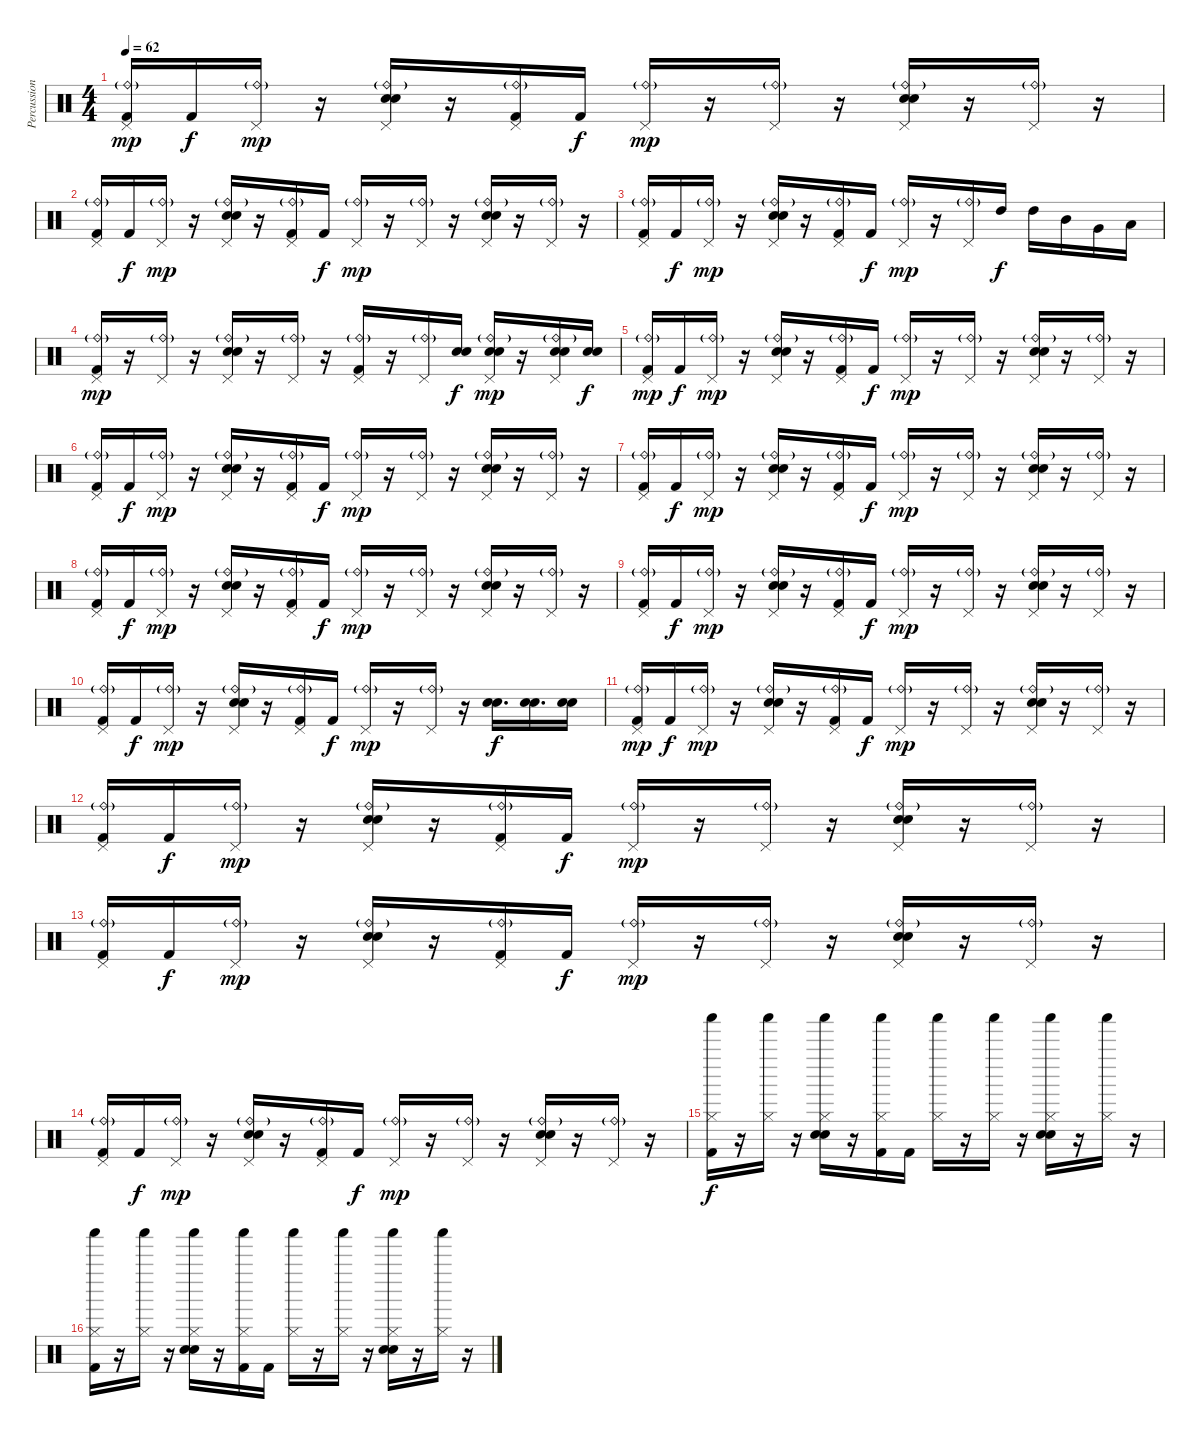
\track ("Percussion" "Percussion") {instrument percussion}
\staff {score}
\articulation defaults
\ts (4 4)
\tempo 62
\clef neutral
\ks c
("Pedal Hi-Hat (hit)" "Ride (bell)"{g} "Kick (hit) 2").16{dy mp} "Kick (hit) 2".16{dy f} ("Pedal Hi-Hat (hit)" "Ride (bell)"{g}).16{dy mp} r.16 ("Pedal Hi-Hat (hit)" "Ride (bell)"{g} "Electric Snare (hit)" "Snare (hit) 2").16 r.16 ("Pedal Hi-Hat (hit)" "Ride (bell)"{g} "Kick (hit) 2").16 "Kick (hit) 2".16{dy f} ("Pedal Hi-Hat (hit)" "Ride (bell)"{g}).16{dy mp} r.16 ("Pedal Hi-Hat (hit)" "Ride (bell)"{g}).16 r.16 ("Pedal Hi-Hat (hit)" "Ride (bell)"{g} "Electric Snare (hit)" "Snare (hit) 2").16 r.16 ("Pedal Hi-Hat (hit)" "Ride (bell)"{g}).16 r.16 |
("Pedal Hi-Hat (hit)" "Ride (bell)"{g} "Kick (hit) 2").16 "Kick (hit) 2".16{dy f} ("Pedal Hi-Hat (hit)" "Ride (bell)"{g}).16{dy mp} r.16 ("Pedal Hi-Hat (hit)" "Ride (bell)"{g} "Electric Snare (hit)" "Snare (hit) 2").16 r.16 ("Pedal Hi-Hat (hit)" "Ride (bell)"{g} "Kick (hit) 2").16 "Kick (hit) 2".16{dy f} ("Pedal Hi-Hat (hit)" "Ride (bell)"{g}).16{dy mp} r.16 ("Pedal Hi-Hat (hit)" "Ride (bell)"{g}).16 r.16 ("Pedal Hi-Hat (hit)" "Ride (bell)"{g} "Electric Snare (hit)" "Snare (hit) 2").16 r.16 ("Pedal Hi-Hat (hit)" "Ride (bell)"{g}).16 r.16 |
("Pedal Hi-Hat (hit)" "Ride (bell)"{g} "Kick (hit) 2").16 "Kick (hit) 2".16{dy f} ("Pedal Hi-Hat (hit)" "Ride (bell)"{g}).16{dy mp} r.16 ("Pedal Hi-Hat (hit)" "Ride (bell)"{g} "Electric Snare (hit)" "Snare (hit) 2").16 r.16 ("Pedal Hi-Hat (hit)" "Ride (bell)"{g} "Kick (hit) 2").16 "Kick (hit) 2".16{dy f} ("Pedal Hi-Hat (hit)" "Ride (bell)"{g}).16{dy mp} r.16 ("Pedal Hi-Hat (hit)" "Ride (bell)"{g}).16 "High Tom (hit)".16{dy f} "High Tom (hit)".16 "Mid Tom (hit)".16 "Very Low Tom (hit)".16 "Low Floor Tom (hit)".16 |
("Pedal Hi-Hat (hit)" "Ride (bell)"{g} "Kick (hit) 2").16{dy mp} r.16 ("Pedal Hi-Hat (hit)" "Ride (bell)"{g}).16 r.16 ("Pedal Hi-Hat (hit)" "Ride (bell)"{g} "Electric Snare (hit)" "Snare (hit) 2").16 r.16 ("Pedal Hi-Hat (hit)" "Ride (bell)"{g}).16 r.16 ("Pedal Hi-Hat (hit)" "Ride (bell)"{g} "Kick (hit) 2").16 r.16 ("Pedal Hi-Hat (hit)" "Ride (bell)"{g}).16 ("Electric Snare (hit)" "Snare (hit) 2").16{dy f} ("Pedal Hi-Hat (hit)" "Ride (bell)"{g} "Electric Snare (hit)" "Snare (hit) 2").16{dy mp} r.16 ("Pedal Hi-Hat (hit)" "Ride (bell)"{g} "Electric Snare (hit)" "Snare (hit) 2").16 ("Electric Snare (hit)" "Snare (hit) 2").16{dy f} |
("Pedal Hi-Hat (hit)" "Ride (bell)"{g} "Kick (hit) 2").16{dy mp} "Kick (hit) 2".16{dy f} ("Pedal Hi-Hat (hit)" "Ride (bell)"{g}).16{dy mp} r.16 ("Pedal Hi-Hat (hit)" "Ride (bell)"{g} "Electric Snare (hit)" "Snare (hit) 2").16 r.16 ("Pedal Hi-Hat (hit)" "Ride (bell)"{g} "Kick (hit) 2").16 "Kick (hit) 2".16{dy f} ("Pedal Hi-Hat (hit)" "Ride (bell)"{g}).16{dy mp} r.16 ("Pedal Hi-Hat (hit)" "Ride (bell)"{g}).16 r.16 ("Pedal Hi-Hat (hit)" "Ride (bell)"{g} "Electric Snare (hit)" "Snare (hit) 2").16 r.16 ("Pedal Hi-Hat (hit)" "Ride (bell)"{g}).16 r.16 |
("Pedal Hi-Hat (hit)" "Ride (bell)"{g} "Kick (hit) 2").16 "Kick (hit) 2".16{dy f} ("Pedal Hi-Hat (hit)" "Ride (bell)"{g}).16{dy mp} r.16 ("Pedal Hi-Hat (hit)" "Ride (bell)"{g} "Electric Snare (hit)" "Snare (hit) 2").16 r.16 ("Pedal Hi-Hat (hit)" "Ride (bell)"{g} "Kick (hit) 2").16 "Kick (hit) 2".16{dy f} ("Pedal Hi-Hat (hit)" "Ride (bell)"{g}).16{dy mp} r.16 ("Pedal Hi-Hat (hit)" "Ride (bell)"{g}).16 r.16 ("Pedal Hi-Hat (hit)" "Ride (bell)"{g} "Electric Snare (hit)" "Snare (hit) 2").16 r.16 ("Pedal Hi-Hat (hit)" "Ride (bell)"{g}).16 r.16 |
("Pedal Hi-Hat (hit)" "Ride (bell)"{g} "Kick (hit) 2").16 "Kick (hit) 2".16{dy f} ("Pedal Hi-Hat (hit)" "Ride (bell)"{g}).16{dy mp} r.16 ("Pedal Hi-Hat (hit)" "Ride (bell)"{g} "Electric Snare (hit)" "Snare (hit) 2").16 r.16 ("Pedal Hi-Hat (hit)" "Ride (bell)"{g} "Kick (hit) 2").16 "Kick (hit) 2".16{dy f} ("Pedal Hi-Hat (hit)" "Ride (bell)"{g}).16{dy mp} r.16 ("Pedal Hi-Hat (hit)" "Ride (bell)"{g}).16 r.16 ("Pedal Hi-Hat (hit)" "Ride (bell)"{g} "Electric Snare (hit)" "Snare (hit) 2").16 r.16 ("Pedal Hi-Hat (hit)" "Ride (bell)"{g}).16 r.16 |
("Pedal Hi-Hat (hit)" "Ride (bell)"{g} "Kick (hit) 2").16 "Kick (hit) 2".16{dy f} ("Pedal Hi-Hat (hit)" "Ride (bell)"{g}).16{dy mp} r.16 ("Pedal Hi-Hat (hit)" "Ride (bell)"{g} "Electric Snare (hit)" "Snare (hit) 2").16 r.16 ("Pedal Hi-Hat (hit)" "Ride (bell)"{g} "Kick (hit) 2").16 "Kick (hit) 2".16{dy f} ("Pedal Hi-Hat (hit)" "Ride (bell)"{g}).16{dy mp} r.16 ("Pedal Hi-Hat (hit)" "Ride (bell)"{g}).16 r.16 ("Pedal Hi-Hat (hit)" "Ride (bell)"{g} "Electric Snare (hit)" "Snare (hit) 2").16 r.16 ("Pedal Hi-Hat (hit)" "Ride (bell)"{g}).16 r.16 |
("Pedal Hi-Hat (hit)" "Ride (bell)"{g} "Kick (hit) 2").16 "Kick (hit) 2".16{dy f} ("Pedal Hi-Hat (hit)" "Ride (bell)"{g}).16{dy mp} r.16 ("Pedal Hi-Hat (hit)" "Ride (bell)"{g} "Electric Snare (hit)" "Snare (hit) 2").16 r.16 ("Pedal Hi-Hat (hit)" "Ride (bell)"{g} "Kick (hit) 2").16 "Kick (hit) 2".16{dy f} ("Pedal Hi-Hat (hit)" "Ride (bell)"{g}).16{dy mp} r.16 ("Pedal Hi-Hat (hit)" "Ride (bell)"{g}).16 r.16 ("Pedal Hi-Hat (hit)" "Ride (bell)"{g} "Electric Snare (hit)" "Snare (hit) 2").16 r.16 ("Pedal Hi-Hat (hit)" "Ride (bell)"{g}).16 r.16 |
("Pedal Hi-Hat (hit)" "Ride (bell)"{g} "Kick (hit) 2").16 "Kick (hit) 2".16{dy f} ("Pedal Hi-Hat (hit)" "Ride (bell)"{g}).16{dy mp} r.16 ("Pedal Hi-Hat (hit)" "Ride (bell)"{g} "Electric Snare (hit)" "Snare (hit) 2").16 r.16 ("Pedal Hi-Hat (hit)" "Ride (bell)"{g} "Kick (hit) 2").16 "Kick (hit) 2".16{dy f} ("Pedal Hi-Hat (hit)" "Ride (bell)"{g}).16{dy mp} r.16 ("Pedal Hi-Hat (hit)" "Ride (bell)"{g}).16 r.16 ("Electric Snare (hit)" "Snare (hit) 2").16{d dy f} ("Electric Snare (hit)" "Snare (hit) 2").16{d} ("Electric Snare (hit)" "Snare (hit) 2").16 |
("Pedal Hi-Hat (hit)" "Ride (bell)"{g} "Kick (hit) 2").16{dy mp} "Kick (hit) 2".16{dy f} ("Pedal Hi-Hat (hit)" "Ride (bell)"{g}).16{dy mp} r.16 ("Pedal Hi-Hat (hit)" "Ride (bell)"{g} "Electric Snare (hit)" "Snare (hit) 2").16 r.16 ("Pedal Hi-Hat (hit)" "Ride (bell)"{g} "Kick (hit) 2").16 "Kick (hit) 2".16{dy f} ("Pedal Hi-Hat (hit)" "Ride (bell)"{g}).16{dy mp} r.16 ("Pedal Hi-Hat (hit)" "Ride (bell)"{g}).16 r.16 ("Pedal Hi-Hat (hit)" "Ride (bell)"{g} "Electric Snare (hit)" "Snare (hit) 2").16 r.16 ("Pedal Hi-Hat (hit)" "Ride (bell)"{g}).16 r.16 |
("Pedal Hi-Hat (hit)" "Ride (bell)"{g} "Kick (hit) 2").16 "Kick (hit) 2".16{dy f} ("Pedal Hi-Hat (hit)" "Ride (bell)"{g}).16{dy mp} r.16 ("Pedal Hi-Hat (hit)" "Ride (bell)"{g} "Electric Snare (hit)" "Snare (hit) 2").16 r.16 ("Pedal Hi-Hat (hit)" "Ride (bell)"{g} "Kick (hit) 2").16 "Kick (hit) 2".16{dy f} ("Pedal Hi-Hat (hit)" "Ride (bell)"{g}).16{dy mp} r.16 ("Pedal Hi-Hat (hit)" "Ride (bell)"{g}).16 r.16 ("Pedal Hi-Hat (hit)" "Ride (bell)"{g} "Electric Snare (hit)" "Snare (hit) 2").16 r.16 ("Pedal Hi-Hat (hit)" "Ride (bell)"{g}).16 r.16 |
("Pedal Hi-Hat (hit)" "Ride (bell)"{g} "Kick (hit) 2").16 "Kick (hit) 2".16{dy f} ("Pedal Hi-Hat (hit)" "Ride (bell)"{g}).16{dy mp} r.16 ("Pedal Hi-Hat (hit)" "Ride (bell)"{g} "Electric Snare (hit)" "Snare (hit) 2").16 r.16 ("Pedal Hi-Hat (hit)" "Ride (bell)"{g} "Kick (hit) 2").16 "Kick (hit) 2".16{dy f} ("Pedal Hi-Hat (hit)" "Ride (bell)"{g}).16{dy mp} r.16 ("Pedal Hi-Hat (hit)" "Ride (bell)"{g}).16 r.16 ("Pedal Hi-Hat (hit)" "Ride (bell)"{g} "Electric Snare (hit)" "Snare (hit) 2").16 r.16 ("Pedal Hi-Hat (hit)" "Ride (bell)"{g}).16 r.16 |
("Pedal Hi-Hat (hit)" "Ride (bell)"{g} "Kick (hit) 2").16 "Kick (hit) 2".16{dy f} ("Pedal Hi-Hat (hit)" "Ride (bell)"{g}).16{dy mp} r.16 ("Pedal Hi-Hat (hit)" "Ride (bell)"{g} "Electric Snare (hit)" "Snare (hit) 2").16 r.16 ("Pedal Hi-Hat (hit)" "Ride (bell)"{g} "Kick (hit) 2").16 "Kick (hit) 2".16{dy f} ("Pedal Hi-Hat (hit)" "Ride (bell)"{g}).16{dy mp} r.16 ("Pedal Hi-Hat (hit)" "Ride (bell)"{g}).16 r.16 ("Pedal Hi-Hat (hit)" "Ride (bell)"{g} "Electric Snare (hit)" "Snare (hit) 2").16 r.16 ("Pedal Hi-Hat (hit)" "Ride (bell)"{g}).16 r.16 |
("Shaker (hit)" "Hi-Hat (closed)" "Kick (hit) 2").16{dy f} r.16 ("Shaker (hit)" "Hi-Hat (closed)").16 r.16 ("Shaker (hit)" "Hi-Hat (closed)" "Electric Snare (hit)" "Snare (hit) 2").16 r.16 ("Shaker (hit)" "Hi-Hat (closed)" "Kick (hit) 2").16 "Kick (hit) 2".16 ("Shaker (hit)" "Hi-Hat (closed)").16 r.16 ("Shaker (hit)" "Hi-Hat (closed)").16 r.16 ("Shaker (hit)" "Hi-Hat (closed)" "Electric Snare (hit)" "Snare (hit) 2").16 r.16 ("Shaker (hit)" "Hi-Hat (closed)").16 r.16 |
("Shaker (hit)" "Hi-Hat (closed)" "Kick (hit) 2").16 r.16 ("Shaker (hit)" "Hi-Hat (closed)").16 r.16 ("Shaker (hit)" "Hi-Hat (closed)" "Electric Snare (hit)" "Snare (hit) 2").16 r.16 ("Shaker (hit)" "Hi-Hat (closed)" "Kick (hit) 2").16 "Kick (hit) 2".16 ("Shaker (hit)" "Hi-Hat (closed)").16 r.16 ("Shaker (hit)" "Hi-Hat (closed)").16 r.16 ("Shaker (hit)" "Hi-Hat (closed)" "Electric Snare (hit)" "Snare (hit) 2").16 r.16 ("Shaker (hit)" "Hi-Hat (closed)").16 r.16
